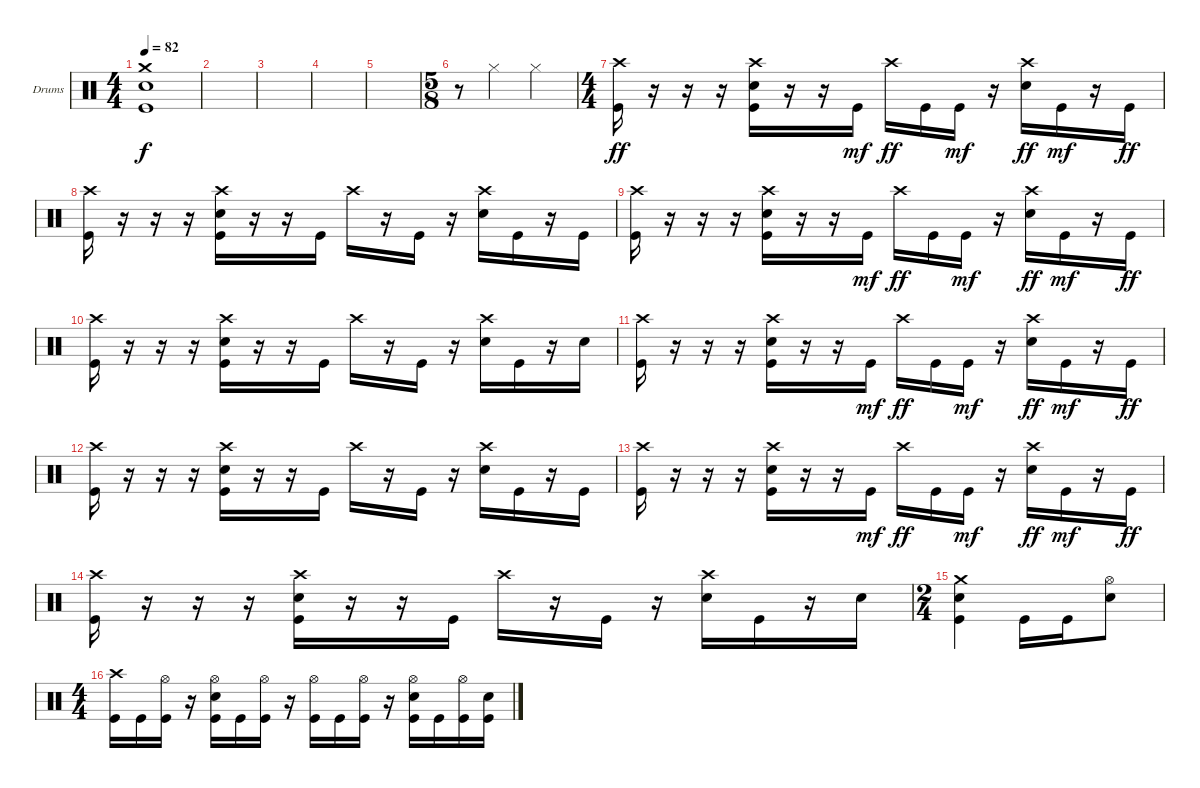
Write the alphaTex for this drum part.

\bracketExtendMode groupsimilarinstruments
\firstSystemTrackNameOrientation horizontal
\otherSystemsTrackNameOrientation horizontal
\track ("Kaleb - Drums" "Drums") {instrument percussion}
\staff {score}
\articulation defaults
\ts (4 4)
\tempo 82
\clef neutral
\ks c
("Crash medium (hit)" "Kick (hit)" "Snare (hit) 2").1{dy f} |
|
|
|
|
\ts (5 8)
r.8 "Hi-Hat (closed)".4 "Hi-Hat (closed)".4 |
\ts (4 4)
("Kick (hit)" "Crash high (hit)").16{dy ff} r.16 r.16 r.16 ("Kick (hit)" "Snare (hit) 2" "Crash high (hit)").16 r.16 r.16 "Kick (hit)".16{dy mf} "Crash high (hit)".16{dy ff} "Kick (hit)".16 "Kick (hit)".16{dy mf} r.16 ("Snare (hit) 2" "Crash high (hit)").16{dy ff} "Kick (hit)".16{dy mf} r.16 "Kick (hit)".16{dy ff} |
("Kick (hit)" "Crash high (hit)").16 r.16 r.16 r.16 ("Kick (hit)" "Crash high (hit)" "Snare (hit) 2").16 r.16 r.16 "Kick (hit)".16 "Crash high (hit)".16 r.16 "Kick (hit)".16 r.16 ("Crash high (hit)" "Snare (hit) 2").16 "Kick (hit)".16 r.16 "Kick (hit)".16 |
("Kick (hit)" "Crash high (hit)").16 r.16 r.16 r.16 ("Kick (hit)" "Snare (hit) 2" "Crash high (hit)").16 r.16 r.16 "Kick (hit)".16{dy mf} "Crash high (hit)".16{dy ff} "Kick (hit)".16 "Kick (hit)".16{dy mf} r.16 ("Snare (hit) 2" "Crash high (hit)").16{dy ff} "Kick (hit)".16{dy mf} r.16 "Kick (hit)".16{dy ff} |
("Kick (hit)" "Crash high (hit)").16 r.16 r.16 r.16 ("Kick (hit)" "Crash high (hit)" "Snare (hit) 2").16 r.16 r.16 "Kick (hit)".16 "Crash high (hit)".16 r.16 "Kick (hit)".16 r.16 ("Crash high (hit)" "Snare (hit) 2").16 "Kick (hit)".16 r.16 "Snare (hit) 2".16 |
("Kick (hit)" "Crash high (hit)").16 r.16 r.16 r.16 ("Kick (hit)" "Snare (hit) 2" "Crash high (hit)").16 r.16 r.16 "Kick (hit)".16{dy mf} "Crash high (hit)".16{dy ff} "Kick (hit)".16 "Kick (hit)".16{dy mf} r.16 ("Snare (hit) 2" "Crash high (hit)").16{dy ff} "Kick (hit)".16{dy mf} r.16 "Kick (hit)".16{dy ff} |
("Kick (hit)" "Crash high (hit)").16 r.16 r.16 r.16 ("Kick (hit)" "Crash high (hit)" "Snare (hit) 2").16 r.16 r.16 "Kick (hit)".16 "Crash high (hit)".16 r.16 "Kick (hit)".16 r.16 ("Crash high (hit)" "Snare (hit) 2").16 "Kick (hit)".16 r.16 "Kick (hit)".16 |
("Kick (hit)" "Crash high (hit)").16 r.16 r.16 r.16 ("Kick (hit)" "Snare (hit) 2" "Crash high (hit)").16 r.16 r.16 "Kick (hit)".16{dy mf} "Crash high (hit)".16{dy ff} "Kick (hit)".16 "Kick (hit)".16{dy mf} r.16 ("Snare (hit) 2" "Crash high (hit)").16{dy ff} "Kick (hit)".16{dy mf} r.16 "Kick (hit)".16{dy ff} |
("Kick (hit)" "Crash high (hit)").16 r.16 r.16 r.16 ("Kick (hit)" "Crash high (hit)" "Snare (hit) 2").16 r.16 r.16 "Kick (hit)".16 "Crash high (hit)".16 r.16 "Kick (hit)".16 r.16 ("Crash high (hit)" "Snare (hit) 2").16 "Kick (hit)".16 r.16 "Snare (hit) 2".16 |
\ts (2 4)
("Kick (hit)" "Snare (hit) 2" "Crash medium (hit)").4 "Kick (hit)".16 "Kick (hit)".16 ("Hi-Hat (open)" "Snare (hit) 2").8 |
\ts (4 4)
("Kick (hit)" "Crash high (hit)").16 "Kick (hit)".16 ("Kick (hit)" "Hi-Hat (open)").16 r.16 ("Kick (hit)" "Snare (hit) 2" "Hi-Hat (open)").16 "Kick (hit)".16 ("Kick (hit)" "Hi-Hat (open)").16 r.16 ("Kick (hit)" "Hi-Hat (open)").16 "Kick (hit)".16 ("Kick (hit)" "Hi-Hat (open)").16 r.16 ("Kick (hit)" "Snare (hit) 2" "Hi-Hat (open)").16 "Kick (hit)".16 ("Kick (hit)" "Hi-Hat (open)").16 ("Kick (hit)" "Snare (hit) 2").16
